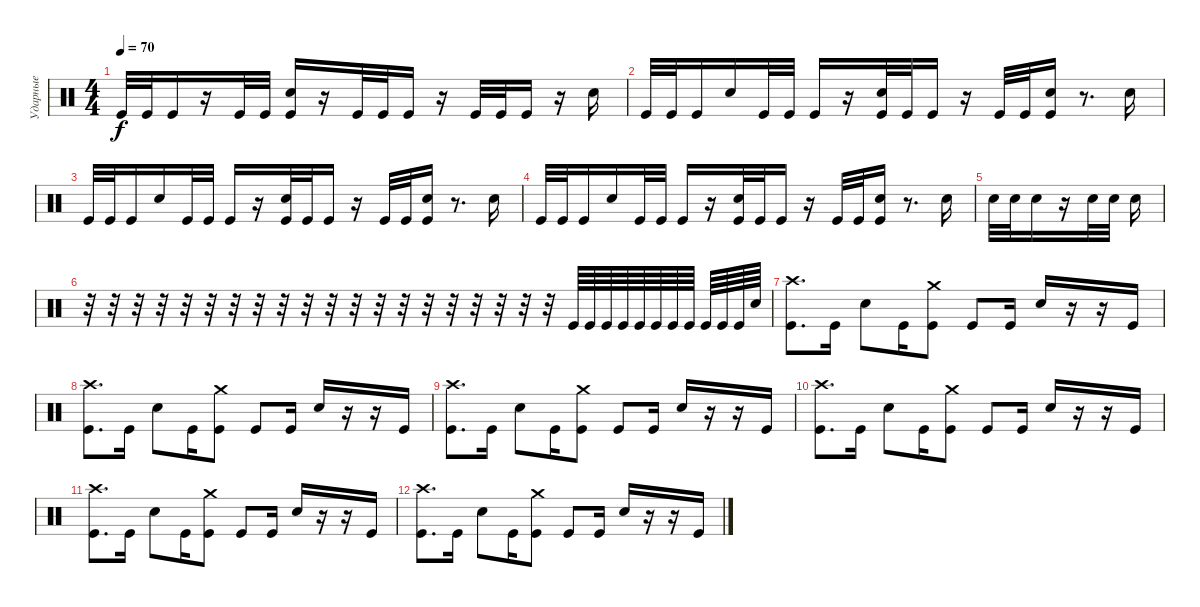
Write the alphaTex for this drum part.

\track ("Ударные" "Ударные") {instrument percussion}
\staff {score}
\articulation defaults
\ts (4 4)
\tempo 70
\clef neutral
\ks c "Kick (hit)".32{dy f} "Kick (hit)".32 "Kick (hit)".16
r.16 "Kick (hit)".32 "Kick (hit)".32 ("Electric Snare (hit)" "Kick (hit)").16 r.16 "Kick (hit)".32 "Kick (hit)".32 "Kick (hit)".16 r.16 "Kick (hit)".32 "Kick (hit)".32 "Kick (hit)".16 r.16 "Electric Snare (hit)".16 |
"Kick (hit)".32 "Kick (hit)".32 "Kick (hit)".16 "Electric Snare (hit)".16 "Kick (hit)".32 "Kick (hit)".32 "Kick (hit)".16 r.16 ("Electric Snare (hit)" "Kick (hit)").32 "Kick (hit)".32 "Kick (hit)".16 r.16 "Kick (hit)".32 "Kick (hit)".32 ("Electric Snare (hit)" "Kick (hit)").16 r.8{d} "Electric Snare (hit)".16 |
"Kick (hit)".32 "Kick (hit)".32 "Kick (hit)".16 "Electric Snare (hit)".16 "Kick (hit)".32 "Kick (hit)".32 "Kick (hit)".16 r.16 ("Electric Snare (hit)" "Kick (hit)").32 "Kick (hit)".32 "Kick (hit)".16 r.16 "Kick (hit)".32 "Kick (hit)".32 ("Electric Snare (hit)" "Kick (hit)").16 r.8{d} "Electric Snare (hit)".16 |
"Kick (hit)".32 "Kick (hit)".32 "Kick (hit)".16 "Electric Snare (hit)".16 "Kick (hit)".32 "Kick (hit)".32 "Kick (hit)".16 r.16 ("Electric Snare (hit)" "Kick (hit)").32 "Kick (hit)".32 "Kick (hit)".16 r.16 "Kick (hit)".32 "Kick (hit)".32 ("Electric Snare (hit)" "Kick (hit)").16 r.8{d} "Electric Snare (hit)".16 |
"Electric Snare (hit)".32 "Electric Snare (hit)".32 "Electric Snare (hit)".16 r.16 "Electric Snare (hit)".32 "Electric Snare (hit)".32 "Electric Snare (hit)".16 |
r.32 r.32 r.32 r.32 r.32 r.32 r.32 r.32 r.32 r.32 r.32 r.32 r.32 r.32 r.32 r.32 r.32 r.32 r.32 r.32 "Kick (hit)".64 "Kick (hit)".64 "Kick (hit)".64 "Kick (hit)".64 "Kick (hit)".64 "Kick (hit)".64 "Kick (hit)".64 "Kick (hit)".64 "Kick (hit)".64 "Kick (hit)".64 "Kick (hit)".64 "Electric Snare (hit)".64 |
("Crash high (hit)" "Kick (hit)").8{d} "Kick (hit)".16 "Electric Snare (hit)".8 "Kick (hit)".16 ("Crash medium (hit)" "Kick (hit)").8 "Kick (hit)".8 "Kick (hit)".16 "Electric Snare (hit)".16 r.16 r.16 "Kick (hit)".16 |
("Crash high (hit)" "Kick (hit)").8{d} "Kick (hit)".16 "Electric Snare (hit)".8 "Kick (hit)".16 ("Crash medium (hit)" "Kick (hit)").8 "Kick (hit)".8 "Kick (hit)".16 "Electric Snare (hit)".16 r.16 r.16 "Kick (hit)".16 |
("Crash high (hit)" "Kick (hit)").8{d} "Kick (hit)".16 "Electric Snare (hit)".8 "Kick (hit)".16 ("Crash medium (hit)" "Kick (hit)").8 "Kick (hit)".8 "Kick (hit)".16 "Electric Snare (hit)".16 r.16 r.16 "Kick (hit)".16 |
("Crash high (hit)" "Kick (hit)").8{d} "Kick (hit)".16 "Electric Snare (hit)".8 "Kick (hit)".16 ("Crash medium (hit)" "Kick (hit)").8 "Kick (hit)".8 "Kick (hit)".16 "Electric Snare (hit)".16 r.16 r.16 "Kick (hit)".16 |
("Crash high (hit)" "Kick (hit)").8{d} "Kick (hit)".16 "Electric Snare (hit)".8 "Kick (hit)".16 ("Crash medium (hit)" "Kick (hit)").8 "Kick (hit)".8 "Kick (hit)".16 "Electric Snare (hit)".16 r.16 r.16 "Kick (hit)".16 |
("Crash high (hit)" "Kick (hit)").8{d} "Kick (hit)".16 "Electric Snare (hit)".8 "Kick (hit)".16 ("Crash medium (hit)" "Kick (hit)").8 "Kick (hit)".8 "Kick (hit)".16 "Electric Snare (hit)".16 r.16 r.16 "Kick (hit)".16
